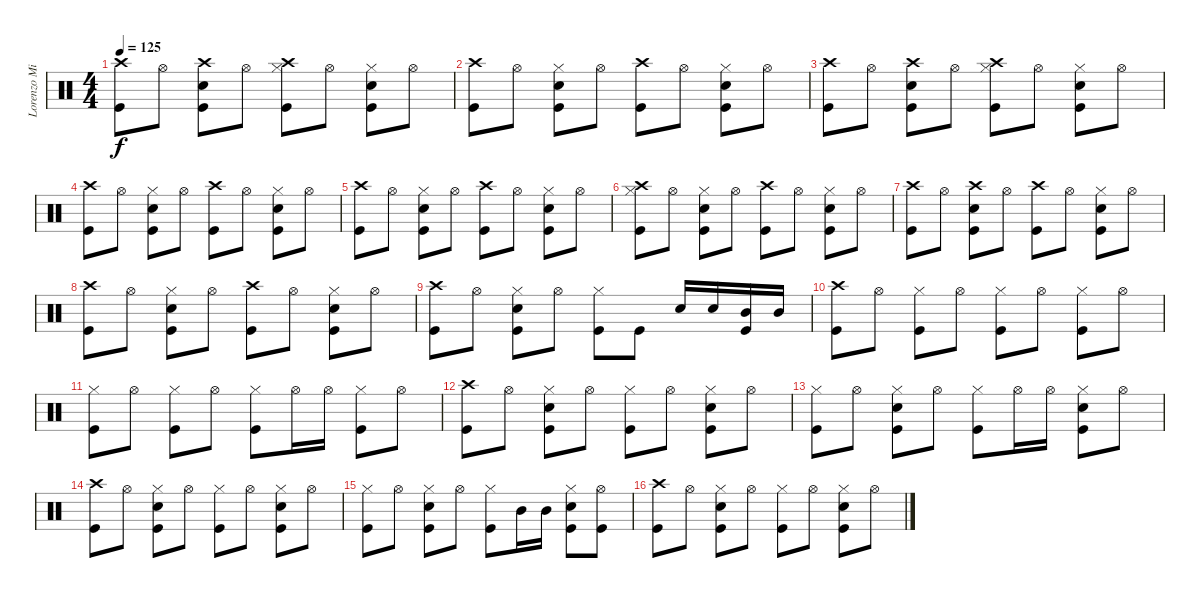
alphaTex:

\track ("Lorenzo Milani - drums" "Lorenzo Mi") {instrument percussion}
\staff {score}
\articulation defaults
\ts (4 4)
\tempo 125
\clef neutral
\ks c
("Crash high (hit)" "Kick (hit)").8{dy f} "Hi-Hat (open)".8 ("Crash high (hit)" "Electric Snare (hit)" "Kick (hit)").8 "Hi-Hat (open)".8 ("Crash high (hit)" "Hi-Hat (closed)" "Kick (hit)").8 "Hi-Hat (open)".8 ("Electric Snare (hit)" "Hi-Hat (closed)" "Kick (hit)").8 "Hi-Hat (open)".8 |
("Crash high (hit)" "Kick (hit)").8 "Hi-Hat (open)".8 ("Electric Snare (hit)" "Hi-Hat (closed)" "Kick (hit)").8 "Hi-Hat (open)".8 ("Crash high (hit)" "Kick (hit)").8 "Hi-Hat (open)".8 ("Electric Snare (hit)" "Hi-Hat (closed)" "Kick (hit)").8 "Hi-Hat (open)".8 |
("Crash high (hit)" "Kick (hit)").8 "Hi-Hat (open)".8 ("Crash high (hit)" "Electric Snare (hit)" "Kick (hit)").8 "Hi-Hat (open)".8 ("Crash high (hit)" "Hi-Hat (closed)" "Kick (hit)").8 "Hi-Hat (open)".8 ("Electric Snare (hit)" "Hi-Hat (closed)" "Kick (hit)").8 "Hi-Hat (open)".8 |
("Crash high (hit)" "Kick (hit)").8 "Hi-Hat (open)".8 ("Electric Snare (hit)" "Hi-Hat (closed)" "Kick (hit)").8 "Hi-Hat (open)".8 ("Crash high (hit)" "Kick (hit)").8 "Hi-Hat (open)".8 ("Electric Snare (hit)" "Hi-Hat (closed)" "Kick (hit)").8 "Hi-Hat (open)".8 |
("Crash high (hit)" "Kick (hit)").8 "Hi-Hat (open)".8 ("Electric Snare (hit)" "Hi-Hat (closed)" "Kick (hit)").8 "Hi-Hat (open)".8 ("Crash high (hit)" "Kick (hit)").8 "Hi-Hat (open)".8 ("Electric Snare (hit)" "Hi-Hat (closed)" "Kick (hit)").8 "Hi-Hat (open)".8 |
("Crash high (hit)" "Hi-Hat (closed)" "Kick (hit)").8 "Hi-Hat (open)".8 ("Electric Snare (hit)" "Hi-Hat (closed)" "Kick (hit)").8 "Hi-Hat (open)".8 ("Crash high (hit)" "Kick (hit)").8 "Hi-Hat (open)".8 ("Electric Snare (hit)" "Hi-Hat (closed)" "Kick (hit)").8 "Hi-Hat (open)".8 |
("Crash high (hit)" "Kick (hit)").8 "Hi-Hat (open)".8 ("Crash high (hit)" "Electric Snare (hit)" "Kick (hit)").8 "Hi-Hat (open)".8 ("Crash high (hit)" "Kick (hit)").8 "Hi-Hat (open)".8 ("Electric Snare (hit)" "Hi-Hat (closed)" "Kick (hit)").8 "Hi-Hat (open)".8 |
("Crash high (hit)" "Kick (hit)").8 "Hi-Hat (open)".8 ("Electric Snare (hit)" "Hi-Hat (closed)" "Kick (hit)").8 "Hi-Hat (open)".8 ("Crash high (hit)" "Kick (hit)").8 "Hi-Hat (open)".8 ("Electric Snare (hit)" "Hi-Hat (closed)" "Kick (hit)").8 "Hi-Hat (open)".8 |
("Crash high (hit)" "Kick (hit)").8 "Hi-Hat (open)".8 ("Electric Snare (hit)" "Hi-Hat (closed)" "Kick (hit)").8 "Hi-Hat (open)".8 ("Hi-Hat (closed)" "Kick (hit)").8 "Kick (hit)".8 "Electric Snare (hit)".16 "Electric Snare (hit)".16 ("Mid Tom (hit)" "Kick (hit)").16 "Mid Tom (hit)".16 |
("Crash high (hit)" "Kick (hit)").8 "Hi-Hat (open)".8 ("Hi-Hat (closed)" "Kick (hit)").8 "Hi-Hat (open)".8 ("Hi-Hat (closed)" "Kick (hit)").8 "Hi-Hat (open)".8 ("Hi-Hat (closed)" "Kick (hit)").8 "Hi-Hat (open)".8 |
("Hi-Hat (closed)" "Kick (hit)").8 "Hi-Hat (open)".8 ("Hi-Hat (closed)" "Kick (hit)").8 "Hi-Hat (open)".8 ("Hi-Hat (closed)" "Kick (hit)").8 "Hi-Hat (open)".16 "Hi-Hat (open)".16 ("Hi-Hat (closed)" "Kick (hit)").8 "Hi-Hat (open)".8 |
("Crash high (hit)" "Kick (hit)").8 "Hi-Hat (open)".8 ("Electric Snare (hit)" "Hi-Hat (closed)" "Kick (hit)").8 "Hi-Hat (open)".8 ("Hi-Hat (closed)" "Kick (hit)").8 "Hi-Hat (open)".8 ("Electric Snare (hit)" "Hi-Hat (closed)" "Kick (hit)").8 "Hi-Hat (open)".8 |
("Hi-Hat (closed)" "Kick (hit)").8 "Hi-Hat (open)".8 ("Electric Snare (hit)" "Hi-Hat (closed)" "Kick (hit)").8 "Hi-Hat (open)".8 ("Hi-Hat (closed)" "Kick (hit)").8 "Hi-Hat (open)".16 "Hi-Hat (open)".16 ("Electric Snare (hit)" "Hi-Hat (closed)" "Kick (hit)").8 "Hi-Hat (open)".8 |
("Crash high (hit)" "Kick (hit)").8 "Hi-Hat (open)".8 ("Electric Snare (hit)" "Hi-Hat (closed)" "Kick (hit)").8 "Hi-Hat (open)".8 ("Hi-Hat (closed)" "Kick (hit)").8 "Hi-Hat (open)".8 ("Electric Snare (hit)" "Hi-Hat (closed)" "Kick (hit)").8 "Hi-Hat (open)".8 |
("Hi-Hat (closed)" "Kick (hit)").8 "Hi-Hat (open)".8 ("Electric Snare (hit)" "Hi-Hat (closed)" "Kick (hit)").8 "Hi-Hat (open)".8 ("Hi-Hat (closed)" "Kick (hit)").8 "Mid Tom (hit)".16 "Mid Tom (hit)".16 ("Electric Snare (hit)" "Hi-Hat (closed)" "Kick (hit)").8 ("Hi-Hat (open)" "Kick (hit)").8 |
("Crash high (hit)" "Kick (hit)").8 "Hi-Hat (open)".8 ("Electric Snare (hit)" "Hi-Hat (closed)" "Kick (hit)").8 "Hi-Hat (open)".8 ("Hi-Hat (closed)" "Kick (hit)").8 "Hi-Hat (open)".8 ("Electric Snare (hit)" "Hi-Hat (closed)" "Kick (hit)").8 "Hi-Hat (open)".8
